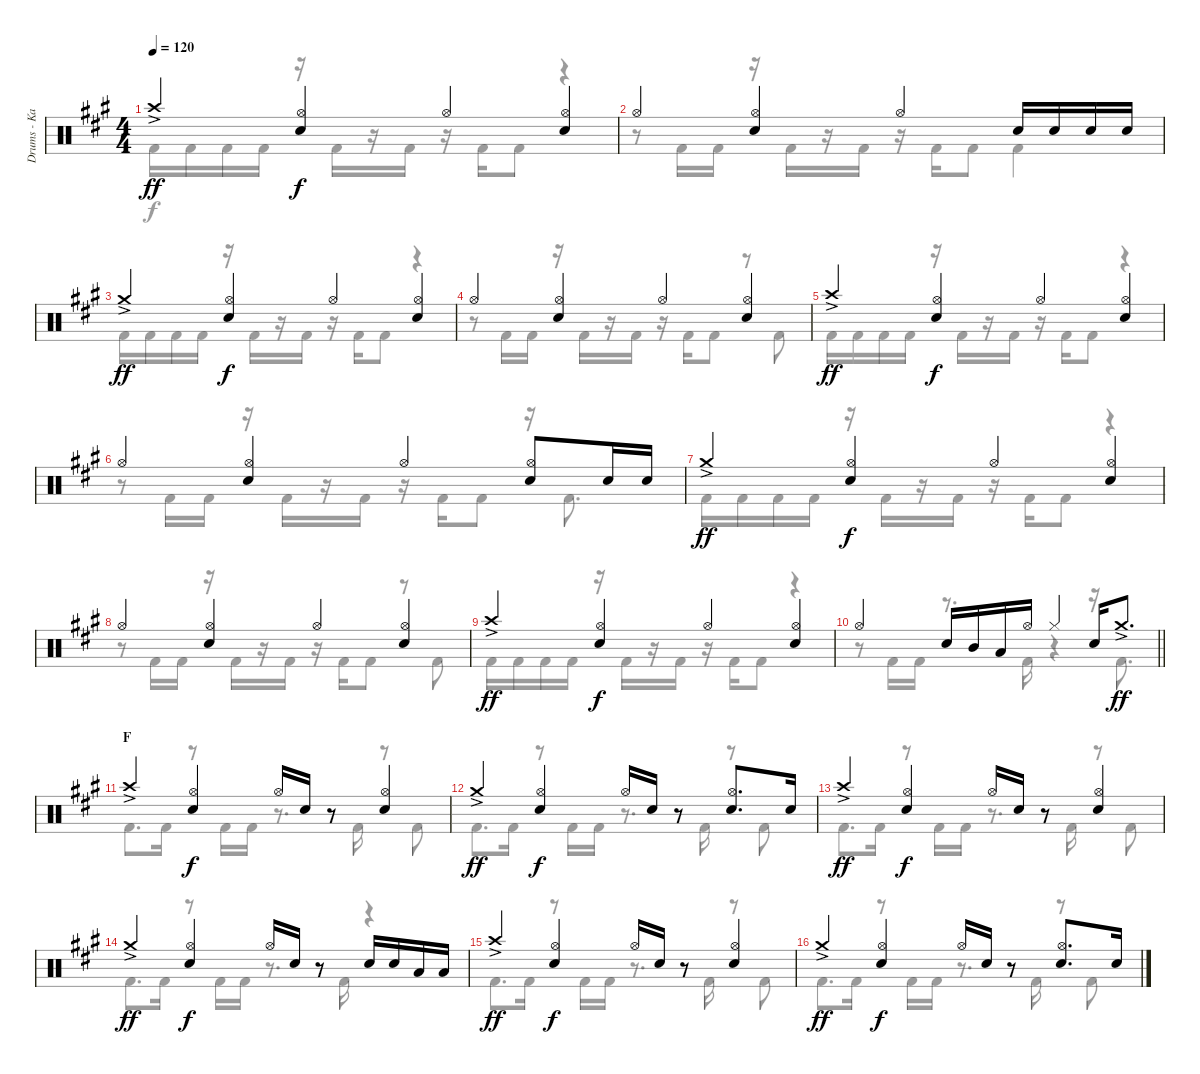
\track ("Drums - Kai" "Drums - Ka") {instrument percussion}
\staff {score}
\articulation defaults
\voice
\ts (4 4)
\tempo 120
\clef neutral
\ks a "Crash high (hit)"{ac}.4{dy ff}
("Hi-Hat (open)" "Snare (hit) 2").4{dy f} "Hi-Hat (open)".4 ("Hi-Hat (open)" "Snare (hit) 2").4 |
"Hi-Hat (open)".4 ("Hi-Hat (open)" "Snare (hit) 2").4 "Hi-Hat (open)".4 "Snare (hit) 2".16 "Snare (hit) 2".16 "Snare (hit) 2".16 "Snare (hit) 2".16 |
"Crash medium (hit)"{ac}.4{dy ff} ("Hi-Hat (open)" "Snare (hit) 2").4{dy f} "Hi-Hat (open)".4 ("Hi-Hat (open)" "Snare (hit) 2").4 |
"Hi-Hat (open)".4 ("Hi-Hat (open)" "Snare (hit) 2").4 "Hi-Hat (open)".4 ("Hi-Hat (open)" "Snare (hit) 2").4 |
"Crash high (hit)"{ac}.4{dy ff} ("Hi-Hat (open)" "Snare (hit) 2").4{dy f} "Hi-Hat (open)".4 ("Hi-Hat (open)" "Snare (hit) 2").4 |
"Hi-Hat (open)".4 ("Hi-Hat (open)" "Snare (hit) 2").4 "Hi-Hat (open)".4 ("Hi-Hat (open)" "Snare (hit) 2").8 "Snare (hit) 2".16 "Snare (hit) 2".16 |
"Crash medium (hit)"{ac}.4{dy ff} ("Hi-Hat (open)" "Snare (hit) 2").4{dy f} "Hi-Hat (open)".4 ("Hi-Hat (open)" "Snare (hit) 2").4 |
"Hi-Hat (open)".4 ("Hi-Hat (open)" "Snare (hit) 2").4 "Hi-Hat (open)".4 ("Hi-Hat (open)" "Snare (hit) 2").4 |
"Crash high (hit)"{ac}.4{dy ff} ("Hi-Hat (open)" "Snare (hit) 2").4{dy f} "Hi-Hat (open)".4 ("Hi-Hat (open)" "Snare (hit) 2").4 |
\barLineRight lightlight "Hi-Hat (open)".4 "Snare (hit) 2".16 "Mid Tom (hit)".16 "Low Tom (hit)".16 "Hi-Hat (open)".16 "Hi-Hat (closed)".4 "Snare (hit) 2".16 "Crash medium (hit)"{ac}.8{d dy ff}
|
\section ("" "F")
"Crash high (hit)"{ac}.4 ("Hi-Hat (open)" "Snare (hit) 2").4{dy f} "Hi-Hat (open)".16 "Snare (hit) 2".16 r.8 ("Hi-Hat (open)" "Snare (hit) 2").4 |
"Crash medium (hit)"{ac}.4{dy ff} ("Hi-Hat (open)" "Snare (hit) 2").4{dy f} "Hi-Hat (open)".16 "Snare (hit) 2".16 r.8 ("Hi-Hat (open)" "Snare (hit) 2").8{d} "Snare (hit) 2".16 |
"Crash high (hit)"{ac}.4{dy ff} ("Hi-Hat (open)" "Snare (hit) 2").4{dy f} "Hi-Hat (open)".16 "Snare (hit) 2".16 r.8 ("Hi-Hat (open)" "Snare (hit) 2").4 |
"Crash medium (hit)"{ac}.4{dy ff} ("Hi-Hat (open)" "Snare (hit) 2").4{dy f} "Hi-Hat (open)".16 "Snare (hit) 2".16 r.8 "Snare (hit) 2".16 "Snare (hit) 2".16 "Low Tom (hit)".16 "Low Tom (hit)".16 |
"Crash high (hit)"{ac}.4{dy ff} ("Hi-Hat (open)" "Snare (hit) 2").4{dy f} "Hi-Hat (open)".16 "Snare (hit) 2".16 r.8 ("Hi-Hat (open)" "Snare (hit) 2").4 |
"Crash medium (hit)"{ac}.4{dy ff} ("Hi-Hat (open)" "Snare (hit) 2").4{dy f} "Hi-Hat (open)".16 "Snare (hit) 2".16 r.8 ("Hi-Hat (open)" "Snare (hit) 2").8{d} "Snare (hit) 2".16
\voice
\clef neutral
\ottava regular
\simile none
\ks a "Kick (hit) 2".16{dy f} "Kick (hit) 2".16 "Kick (hit) 2".16 "Kick (hit) 2".16
r.16 "Kick (hit) 2".16 r.16 "Kick (hit) 2".16 r.16 "Kick (hit) 2".16 "Kick (hit) 2".8 r.4 |
r.8 "Kick (hit) 2".16 "Kick (hit) 2".16 r.16 "Kick (hit) 2".16 r.16 "Kick (hit) 2".16 r.16 "Kick (hit) 2".16 "Kick (hit) 2".8 "Kick (hit) 2".4 |
"Kick (hit) 2".16 "Kick (hit) 2".16 "Kick (hit) 2".16 "Kick (hit) 2".16 r.16 "Kick (hit) 2".16 r.16 "Kick (hit) 2".16 r.16 "Kick (hit) 2".16 "Kick (hit) 2".8 r.4 |
r.8 "Kick (hit) 2".16 "Kick (hit) 2".16 r.16 "Kick (hit) 2".16 r.16 "Kick (hit) 2".16 r.16 "Kick (hit) 2".16 "Kick (hit) 2".8 r.8 "Kick (hit) 2".8 |
"Kick (hit) 2".16 "Kick (hit) 2".16 "Kick (hit) 2".16 "Kick (hit) 2".16 r.16 "Kick (hit) 2".16 r.16 "Kick (hit) 2".16 r.16 "Kick (hit) 2".16 "Kick (hit) 2".8 r.4 |
r.8 "Kick (hit) 2".16 "Kick (hit) 2".16 r.16 "Kick (hit) 2".16 r.16 "Kick (hit) 2".16 r.16 "Kick (hit) 2".16 "Kick (hit) 2".8 r.16 "Kick (hit) 2".8{d} |
"Kick (hit) 2".16 "Kick (hit) 2".16 "Kick (hit) 2".16 "Kick (hit) 2".16 r.16 "Kick (hit) 2".16 r.16 "Kick (hit) 2".16 r.16 "Kick (hit) 2".16 "Kick (hit) 2".8 r.4 |
r.8 "Kick (hit) 2".16 "Kick (hit) 2".16 r.16 "Kick (hit) 2".16 r.16 "Kick (hit) 2".16 r.16 "Kick (hit) 2".16 "Kick (hit) 2".8 r.8 "Kick (hit) 2".8 |
"Kick (hit) 2".16 "Kick (hit) 2".16 "Kick (hit) 2".16 "Kick (hit) 2".16 r.16 "Kick (hit) 2".16 r.16 "Kick (hit) 2".16 r.16 "Kick (hit) 2".16 "Kick (hit) 2".8 r.4 |
\barLineRight lightlight
r.8 "Kick (hit) 2".16 "Kick (hit) 2".16 r.8{d} "Kick (hit) 2".16 r.4 r.16 "Kick (hit) 2".8{d} |
"Kick (hit) 2".8{d} "Kick (hit) 2".16 r.8 "Kick (hit) 2".16 "Kick (hit) 2".16 r.8{d} "Kick (hit) 2".16 r.8 "Kick (hit) 2".8 |
"Kick (hit) 2".8{d} "Kick (hit) 2".16 r.8 "Kick (hit) 2".16 "Kick (hit) 2".16 r.8{d} "Kick (hit) 2".16 r.8 "Kick (hit) 2".8 |
"Kick (hit) 2".8{d} "Kick (hit) 2".16 r.8 "Kick (hit) 2".16 "Kick (hit) 2".16 r.8{d} "Kick (hit) 2".16 r.8 "Kick (hit) 2".8 |
"Kick (hit) 2".8{d} "Kick (hit) 2".16 r.8 "Kick (hit) 2".16 "Kick (hit) 2".16 r.8{d} "Kick (hit) 2".16 r.4 |
"Kick (hit) 2".8{d} "Kick (hit) 2".16 r.8 "Kick (hit) 2".16 "Kick (hit) 2".16 r.8{d} "Kick (hit) 2".16 r.8 "Kick (hit) 2".8 |
"Kick (hit) 2".8{d} "Kick (hit) 2".16 r.8 "Kick (hit) 2".16 "Kick (hit) 2".16 r.8{d} "Kick (hit) 2".16 r.8 "Kick (hit) 2".8
